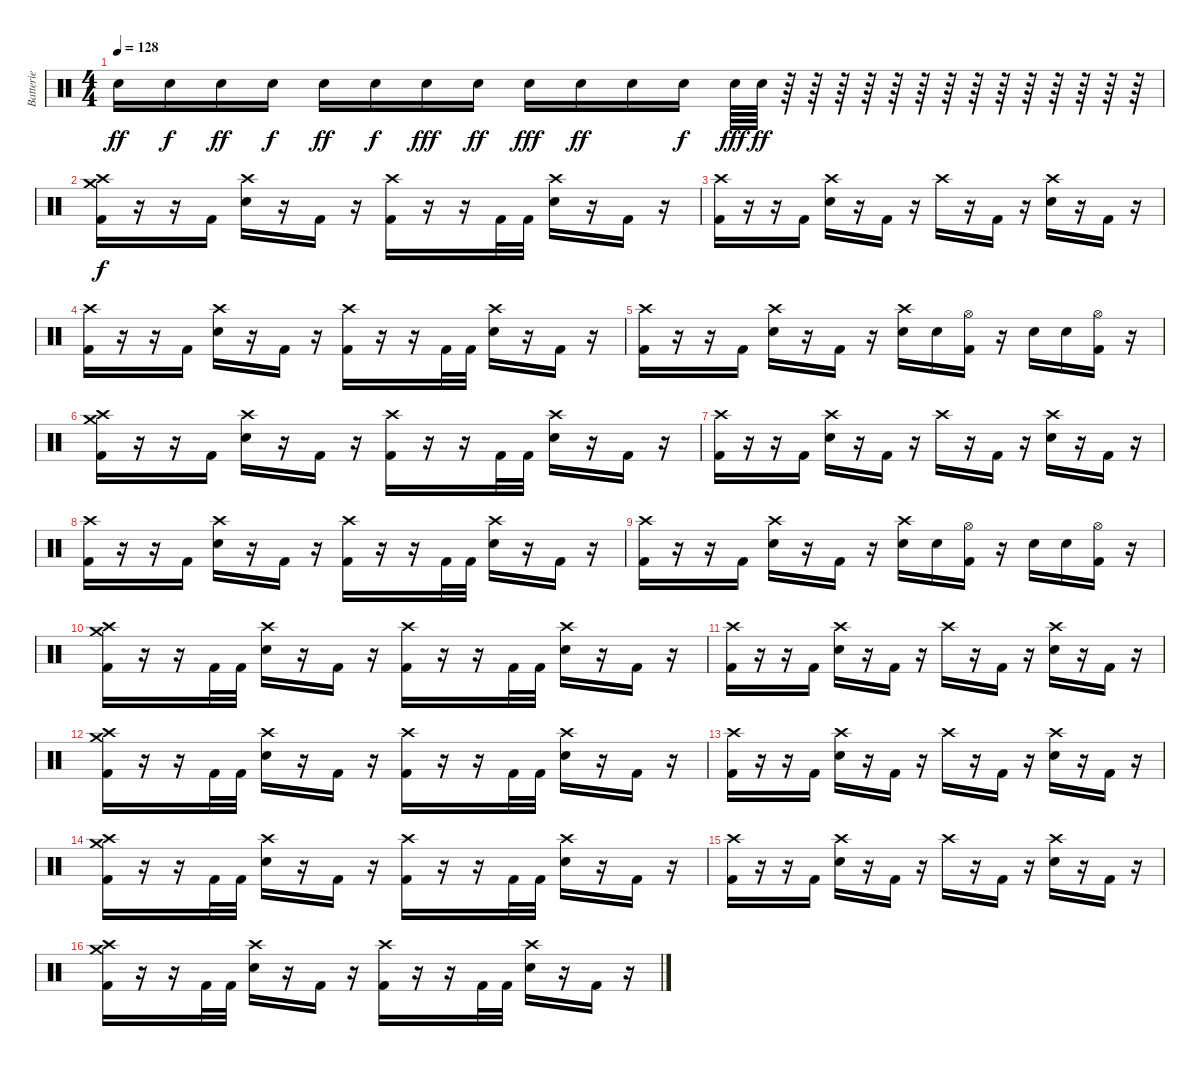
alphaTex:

\track ("Batterie" "Batterie") {instrument percussion}
\staff {score}
\articulation defaults
\ts (4 4)
\tempo 128
\clef neutral
\ks c "Electric Snare (hit)".16{dy ff} "Electric Snare (hit)".16{dy f} "Electric Snare (hit)".16{dy ff} "Electric Snare (hit)".16{dy f} "Electric Snare (hit)".16{dy ff} "Electric Snare (hit)".16{dy f} "Electric Snare (hit)".16{dy fff} "Electric Snare (hit)".16{dy ff} "Electric Snare (hit)".16{dy fff} "Electric Snare (hit)".16{dy ff} "Electric Snare (hit)".16 "Electric Snare (hit)".16{dy f} "Electric Snare (hit)".64{dy fff} "Electric Snare (hit)".64{dy ff}
r.64 r.64 r.64 r.64 r.64 r.64 r.64 r.64 r.64 r.64 r.64 r.64 r.64 r.64 |
("Kick (hit) 2" "Crash medium (hit)" "Crash high (hit)").16{dy f} r.16 r.16 "Kick (hit) 2".16 ("Electric Snare (hit)" "Crash high (hit)").16 r.16 "Kick (hit) 2".16 r.16 ("Kick (hit) 2" "Crash high (hit)").16 r.16 r.16 "Kick (hit) 2".32 "Kick (hit) 2".32 ("Electric Snare (hit)" "Crash high (hit)").16 r.16 "Kick (hit) 2".16 r.16 |
("Kick (hit) 2" "Crash high (hit)").16 r.16 r.16 "Kick (hit) 2".16 ("Electric Snare (hit)" "Crash high (hit)").16 r.16 "Kick (hit) 2".16 r.16 "Crash high (hit)".16 r.16 "Kick (hit) 2".16 r.16 ("Electric Snare (hit)" "Crash high (hit)").16 r.16 "Kick (hit) 2".16 r.16 |
("Kick (hit) 2" "Crash high (hit)").16 r.16 r.16 "Kick (hit) 2".16 ("Electric Snare (hit)" "Crash high (hit)").16 r.16 "Kick (hit) 2".16 r.16 ("Kick (hit) 2" "Crash high (hit)").16 r.16 r.16 "Kick (hit) 2".32 "Kick (hit) 2".32 ("Electric Snare (hit)" "Crash high (hit)").16 r.16 "Kick (hit) 2".16 r.16 |
("Kick (hit) 2" "Crash high (hit)").16 r.16 r.16 "Kick (hit) 2".16 ("Electric Snare (hit)" "Crash high (hit)").16 r.16 "Kick (hit) 2".16 r.16 ("Electric Snare (hit)" "Crash high (hit)").16 "Electric Snare (hit)".16 ("Kick (hit) 2" "Hi-Hat (open)").16 r.16 "Electric Snare (hit)".16 "Electric Snare (hit)".16 ("Kick (hit) 2" "Hi-Hat (open)").16 r.16 |
("Kick (hit) 2" "Crash medium (hit)" "Crash high (hit)").16 r.16 r.16 "Kick (hit) 2".16 ("Electric Snare (hit)" "Crash high (hit)").16 r.16 "Kick (hit) 2".16 r.16 ("Kick (hit) 2" "Crash high (hit)").16 r.16 r.16 "Kick (hit) 2".32 "Kick (hit) 2".32 ("Electric Snare (hit)" "Crash high (hit)").16 r.16 "Kick (hit) 2".16 r.16 |
("Kick (hit) 2" "Crash high (hit)").16 r.16 r.16 "Kick (hit) 2".16 ("Electric Snare (hit)" "Crash high (hit)").16 r.16 "Kick (hit) 2".16 r.16 "Crash high (hit)".16 r.16 "Kick (hit) 2".16 r.16 ("Electric Snare (hit)" "Crash high (hit)").16 r.16 "Kick (hit) 2".16 r.16 |
("Kick (hit) 2" "Crash high (hit)").16 r.16 r.16 "Kick (hit) 2".16 ("Electric Snare (hit)" "Crash high (hit)").16 r.16 "Kick (hit) 2".16 r.16 ("Kick (hit) 2" "Crash high (hit)").16 r.16 r.16 "Kick (hit) 2".32 "Kick (hit) 2".32 ("Electric Snare (hit)" "Crash high (hit)").16 r.16 "Kick (hit) 2".16 r.16 |
("Kick (hit) 2" "Crash high (hit)").16 r.16 r.16 "Kick (hit) 2".16 ("Electric Snare (hit)" "Crash high (hit)").16 r.16 "Kick (hit) 2".16 r.16 ("Electric Snare (hit)" "Crash high (hit)").16 "Electric Snare (hit)".16 ("Kick (hit) 2" "Hi-Hat (open)").16 r.16 "Electric Snare (hit)".16 "Electric Snare (hit)".16 ("Kick (hit) 2" "Hi-Hat (open)").16 r.16 |
("Kick (hit) 2" "Crash medium (hit)" "Crash high (hit)").16 r.16 r.16 "Kick (hit) 2".32 "Kick (hit) 2".32 ("Electric Snare (hit)" "Crash high (hit)").16 r.16 "Kick (hit) 2".16 r.16 ("Kick (hit) 2" "Crash high (hit)").16 r.16 r.16 "Kick (hit) 2".32 "Kick (hit) 2".32 ("Electric Snare (hit)" "Crash high (hit)").16 r.16 "Kick (hit) 2".16 r.16 |
("Kick (hit) 2" "Crash high (hit)").16 r.16 r.16 "Kick (hit) 2".16 ("Electric Snare (hit)" "Crash high (hit)").16 r.16 "Kick (hit) 2".16 r.16 "Crash high (hit)".16 r.16 "Kick (hit) 2".16 r.16 ("Electric Snare (hit)" "Crash high (hit)").16 r.16 "Kick (hit) 2".16 r.16 |
("Kick (hit) 2" "Crash medium (hit)" "Crash high (hit)").16 r.16 r.16 "Kick (hit) 2".32 "Kick (hit) 2".32 ("Electric Snare (hit)" "Crash high (hit)").16 r.16 "Kick (hit) 2".16 r.16 ("Kick (hit) 2" "Crash high (hit)").16 r.16 r.16 "Kick (hit) 2".32 "Kick (hit) 2".32 ("Electric Snare (hit)" "Crash high (hit)").16 r.16 "Kick (hit) 2".16 r.16 |
("Kick (hit) 2" "Crash high (hit)").16 r.16 r.16 "Kick (hit) 2".16 ("Electric Snare (hit)" "Crash high (hit)").16 r.16 "Kick (hit) 2".16 r.16 "Crash high (hit)".16 r.16 "Kick (hit) 2".16 r.16 ("Electric Snare (hit)" "Crash high (hit)").16 r.16 "Kick (hit) 2".16 r.16 |
("Kick (hit) 2" "Crash medium (hit)" "Crash high (hit)").16 r.16 r.16 "Kick (hit) 2".32 "Kick (hit) 2".32 ("Electric Snare (hit)" "Crash high (hit)").16 r.16 "Kick (hit) 2".16 r.16 ("Kick (hit) 2" "Crash high (hit)").16 r.16 r.16 "Kick (hit) 2".32 "Kick (hit) 2".32 ("Electric Snare (hit)" "Crash high (hit)").16 r.16 "Kick (hit) 2".16 r.16 |
("Kick (hit) 2" "Crash high (hit)").16 r.16 r.16 "Kick (hit) 2".16 ("Electric Snare (hit)" "Crash high (hit)").16 r.16 "Kick (hit) 2".16 r.16 "Crash high (hit)".16 r.16 "Kick (hit) 2".16 r.16 ("Electric Snare (hit)" "Crash high (hit)").16 r.16 "Kick (hit) 2".16 r.16 |
("Kick (hit) 2" "Crash medium (hit)" "Crash high (hit)").16 r.16 r.16 "Kick (hit) 2".32 "Kick (hit) 2".32 ("Electric Snare (hit)" "Crash high (hit)").16 r.16 "Kick (hit) 2".16 r.16 ("Kick (hit) 2" "Crash high (hit)").16 r.16 r.16 "Kick (hit) 2".32 "Kick (hit) 2".32 ("Electric Snare (hit)" "Crash high (hit)").16 r.16 "Kick (hit) 2".16 r.16
